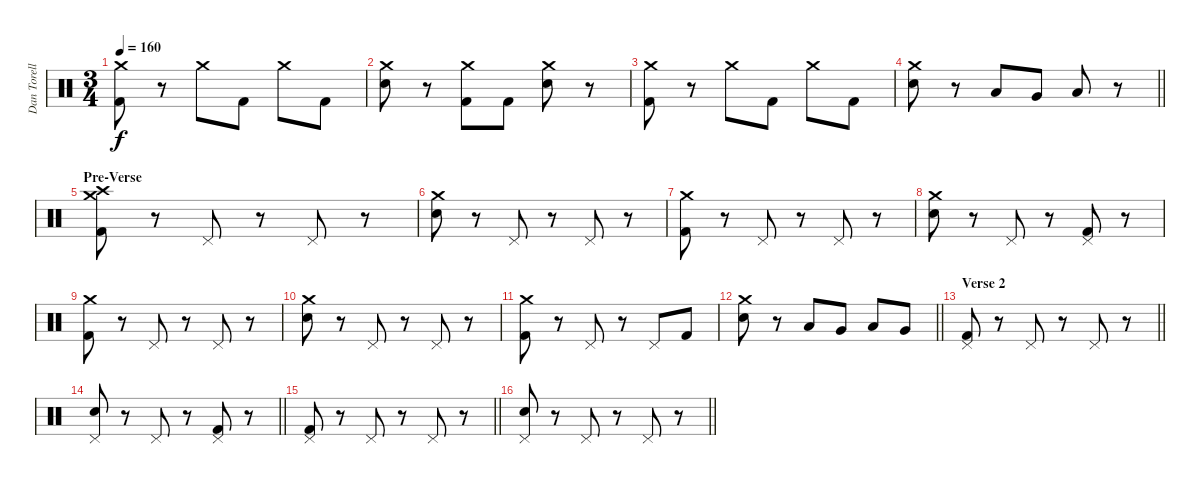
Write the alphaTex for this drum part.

\track ("Dan Torelli - Drums" "Dan Torell") {instrument percussion}
\staff {score}
\articulation defaults
\ts (3 4)
\tempo 160
\clef neutral
\ks c
("Crash medium (hit)" "Kick (hit) 2").8{dy f} r.8 "Crash medium (hit)".8 "Kick (hit) 2".8 "Crash medium (hit)".8 "Kick (hit) 2".8 |
("Crash medium (hit)" "Electric Snare (hit)").8 r.8 ("Crash medium (hit)" "Kick (hit) 2").8 "Kick (hit) 2".8 ("Crash medium (hit)" "Electric Snare (hit)").8 r.8 |
("Crash medium (hit)" "Kick (hit) 2").8 r.8 "Crash medium (hit)".8 "Kick (hit) 2".8 "Crash medium (hit)".8 "Kick (hit) 2".8 |
\barLineRight lightlight
("Crash medium (hit)" "Electric Snare (hit)").8 r.8 "Low Tom (hit)".8 "Very Low Tom (hit)".8 "Low Floor Tom (hit)".8 r.8 |
\section ("" "Pre-Verse")
("Crash high (hit)" "Crash medium (hit)" "Kick (hit) 2").8 r.8 "Pedal Hi-Hat (hit)".8 r.8 "Pedal Hi-Hat (hit)".8 r.8 |
("Crash medium (hit)" "Electric Snare (hit)").8 r.8 "Pedal Hi-Hat (hit)".8 r.8 "Pedal Hi-Hat (hit)".8 r.8 |
("Crash medium (hit)" "Kick (hit) 2").8 r.8 "Pedal Hi-Hat (hit)".8 r.8 "Pedal Hi-Hat (hit)".8 r.8 |
("Crash medium (hit)" "Electric Snare (hit)").8 r.8 "Pedal Hi-Hat (hit)".8 r.8 ("Pedal Hi-Hat (hit)" "Kick (hit) 2").8 r.8 |
("Crash medium (hit)" "Kick (hit) 2").8 r.8 "Pedal Hi-Hat (hit)".8 r.8 "Pedal Hi-Hat (hit)".8 r.8 |
("Crash medium (hit)" "Electric Snare (hit)").8 r.8 "Pedal Hi-Hat (hit)".8 r.8 "Pedal Hi-Hat (hit)".8 r.8 |
("Crash medium (hit)" "Kick (hit) 2").8 r.8 "Pedal Hi-Hat (hit)".8 r.8 "Pedal Hi-Hat (hit)".8 "Kick (hit) 2".8 |
\barLineRight lightlight
("Crash medium (hit)" "Electric Snare (hit)").8 r.8 "Low Tom (hit)".8 "Very Low Tom (hit)".8 "Low Floor Tom (hit)".8 "Very Low Tom (hit)".8 |
\section ("" "Verse 2")
\barLineRight lightlight
("Pedal Hi-Hat (hit)" "Kick (hit) 2").8 r.8 "Pedal Hi-Hat (hit)".8 r.8 "Pedal Hi-Hat (hit)".8 r.8 |
\barLineRight lightlight
("Pedal Hi-Hat (hit)" "Electric Snare (hit)").8 r.8 "Pedal Hi-Hat (hit)".8 r.8 ("Pedal Hi-Hat (hit)" "Kick (hit) 2").8 r.8 |
\barLineRight lightlight
("Pedal Hi-Hat (hit)" "Kick (hit) 2").8 r.8 "Pedal Hi-Hat (hit)".8 r.8 "Pedal Hi-Hat (hit)".8 r.8 |
\barLineRight lightlight
("Pedal Hi-Hat (hit)" "Electric Snare (hit)").8 r.8 "Pedal Hi-Hat (hit)".8 r.8 "Pedal Hi-Hat (hit)".8 r.8
